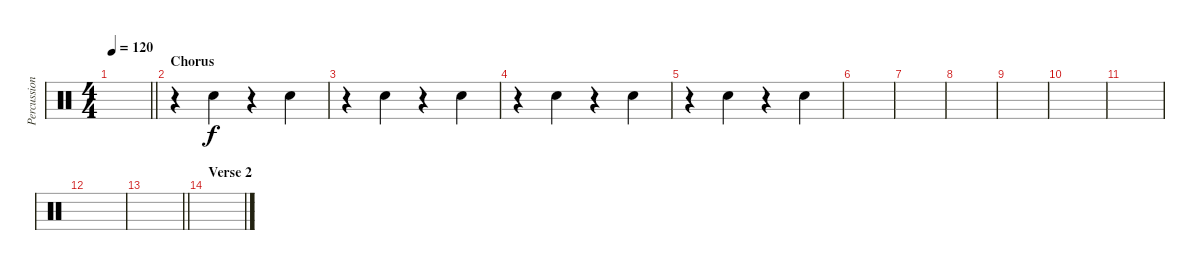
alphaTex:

\track ("Percussions" "Percussion") {instrument percussion}
\staff {score}
\articulation defaults
\ts (4 4)
\tempo 120
\clef neutral
\barLineRight lightlight
\ks c
|
\section ("" "Chorus")
r.4 "Electric Snare (hit)".4 r.4 "Electric Snare (hit)".4 |
r.4 "Electric Snare (hit)".4 r.4 "Electric Snare (hit)".4 |
r.4 "Electric Snare (hit)".4 r.4 "Electric Snare (hit)".4 |
r.4 "Electric Snare (hit)".4 r.4 "Electric Snare (hit)".4 |
|
|
|
|
|
|
|
\barLineRight lightlight
|
\section ("" "Verse 2")
